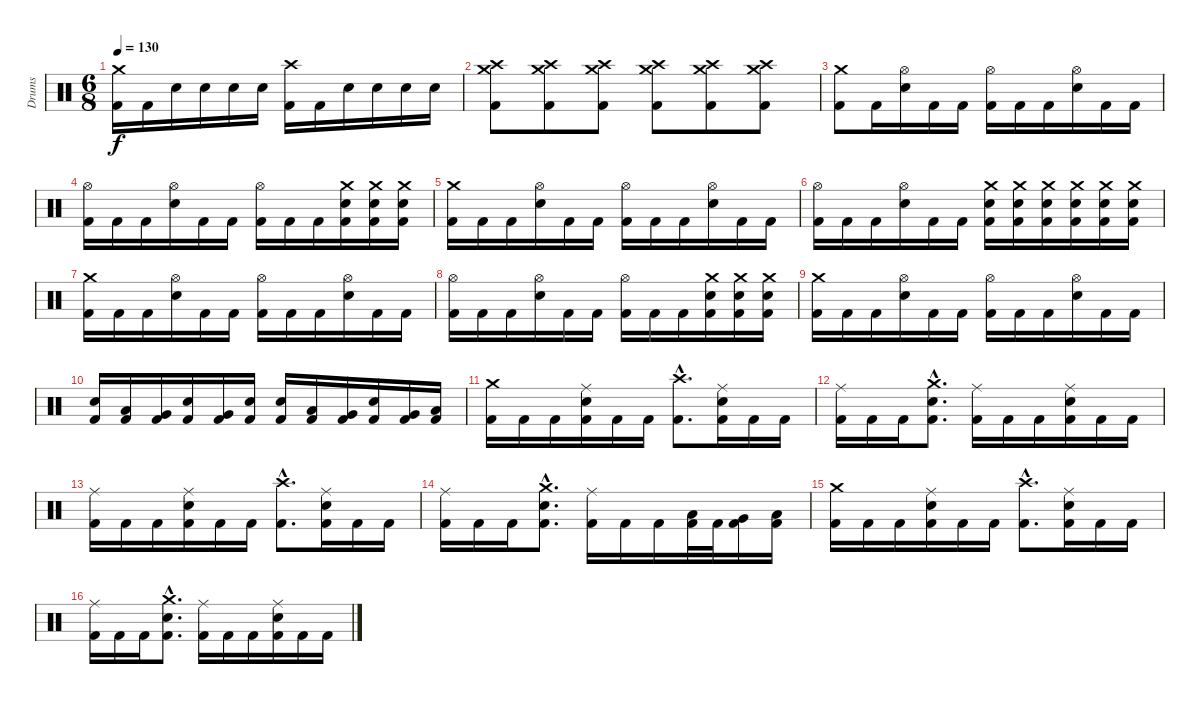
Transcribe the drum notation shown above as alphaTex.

\track ("Drums" "Drums") {instrument percussion}
\staff {score}
\articulation defaults
\ts (6 8)
\tempo 130
\clef neutral
\ks c
("Crash medium (hit)" "Kick (hit) 2").16{dy f} "Kick (hit) 2".16 "Electric Snare (hit)".16 "Electric Snare (hit)".16 "Electric Snare (hit)".16 "Electric Snare (hit)".16 ("Crash high (hit)" "Kick (hit) 2").16 "Kick (hit) 2".16 "Electric Snare (hit)".16 "Electric Snare (hit)".16 "Electric Snare (hit)".16 "Electric Snare (hit)".16 |
("Crash medium (hit)" "Crash high (hit)" "Kick (hit) 2").8 ("Crash medium (hit)" "Crash high (hit)" "Kick (hit) 2").8 ("Crash medium (hit)" "Crash high (hit)" "Kick (hit) 2").8 ("Crash medium (hit)" "Crash high (hit)" "Kick (hit) 2").8 ("Crash medium (hit)" "Crash high (hit)" "Kick (hit) 2").8 ("Crash medium (hit)" "Crash high (hit)" "Kick (hit) 2").8 |
\section ("" "")
("Crash medium (hit)" "Kick (hit) 2").8 "Kick (hit) 2".16 ("Hi-Hat (open)" "Electric Snare (hit)").16 "Kick (hit) 2".16 "Kick (hit) 2".16 ("Hi-Hat (open)" "Kick (hit) 2").16 "Kick (hit) 2".16 "Kick (hit) 2".16 ("Hi-Hat (open)" "Electric Snare (hit)").16 "Kick (hit) 2".16 "Kick (hit) 2".16 |
("Hi-Hat (open)" "Kick (hit) 2").16 "Kick (hit) 2".16 "Kick (hit) 2".16 ("Hi-Hat (open)" "Electric Snare (hit)").16 "Kick (hit) 2".16 "Kick (hit) 2".16 ("Hi-Hat (open)" "Kick (hit) 2").16 "Kick (hit) 2".16 "Kick (hit) 2".16 ("Crash medium (hit)" "Electric Snare (hit)" "Kick (hit) 2").16 ("Crash medium (hit)" "Electric Snare (hit)" "Kick (hit) 2").16 ("Crash medium (hit)" "Electric Snare (hit)" "Kick (hit) 2").16 |
("Crash medium (hit)" "Kick (hit) 2").16 "Kick (hit) 2".16 "Kick (hit) 2".16 ("Hi-Hat (open)" "Electric Snare (hit)").16 "Kick (hit) 2".16 "Kick (hit) 2".16 ("Hi-Hat (open)" "Kick (hit) 2").16 "Kick (hit) 2".16 "Kick (hit) 2".16 ("Hi-Hat (open)" "Electric Snare (hit)").16 "Kick (hit) 2".16 "Kick (hit) 2".16 |
("Hi-Hat (open)" "Kick (hit) 2").16 "Kick (hit) 2".16 "Kick (hit) 2".16 ("Hi-Hat (open)" "Electric Snare (hit)").16 "Kick (hit) 2".16 "Kick (hit) 2".16 ("Crash medium (hit)" "Electric Snare (hit)" "Kick (hit) 2").16 ("Crash medium (hit)" "Electric Snare (hit)" "Kick (hit) 2").16 ("Crash medium (hit)" "Electric Snare (hit)" "Kick (hit) 2").16 ("Crash medium (hit)" "Electric Snare (hit)" "Kick (hit) 2").16 ("Crash medium (hit)" "Electric Snare (hit)" "Kick (hit) 2").16 ("Crash medium (hit)" "Electric Snare (hit)" "Kick (hit) 2").16 |
("Crash medium (hit)" "Kick (hit) 2").16 "Kick (hit) 2".16 "Kick (hit) 2".16 ("Hi-Hat (open)" "Electric Snare (hit)").16 "Kick (hit) 2".16 "Kick (hit) 2".16 ("Hi-Hat (open)" "Kick (hit) 2").16 "Kick (hit) 2".16 "Kick (hit) 2".16 ("Hi-Hat (open)" "Electric Snare (hit)").16 "Kick (hit) 2".16 "Kick (hit) 2".16 |
("Hi-Hat (open)" "Kick (hit) 2").16 "Kick (hit) 2".16 "Kick (hit) 2".16 ("Hi-Hat (open)" "Electric Snare (hit)").16 "Kick (hit) 2".16 "Kick (hit) 2".16 ("Hi-Hat (open)" "Kick (hit) 2").16 "Kick (hit) 2".16 "Kick (hit) 2".16 ("Crash medium (hit)" "Electric Snare (hit)" "Kick (hit) 2").16 ("Crash medium (hit)" "Electric Snare (hit)" "Kick (hit) 2").16 ("Crash medium (hit)" "Electric Snare (hit)" "Kick (hit) 2").16 |
("Crash medium (hit)" "Kick (hit) 2").16 "Kick (hit) 2".16 "Kick (hit) 2".16 ("Hi-Hat (open)" "Electric Snare (hit)").16 "Kick (hit) 2".16 "Kick (hit) 2".16 ("Hi-Hat (open)" "Kick (hit) 2").16 "Kick (hit) 2".16 "Kick (hit) 2".16 ("Hi-Hat (open)" "Electric Snare (hit)").16 "Kick (hit) 2".16 "Kick (hit) 2".16 |
("Electric Snare (hit)" "Kick (hit) 2").16 ("Low Tom (hit)" "Kick (hit) 2").16 ("Very Low Tom (hit)" "Kick (hit) 2").16 ("Electric Snare (hit)" "Kick (hit) 2").16 ("Very Low Tom (hit)" "Kick (hit) 2").16 ("Electric Snare (hit)" "Kick (hit) 2").16 ("Electric Snare (hit)" "Kick (hit) 2").16 ("Low Tom (hit)" "Kick (hit) 2").16 ("Very Low Tom (hit)" "Kick (hit) 2").16 ("Electric Snare (hit)" "Kick (hit) 2").16 ("Very Low Tom (hit)" "Kick (hit) 2").16 ("Low Floor Tom (hit)" "Kick (hit) 2").16 |
\section ("" "")
("Crash medium (hit)" "Kick (hit) 2").16 "Kick (hit) 2".16 "Kick (hit) 2".16 ("Ride (middle)" "Electric Snare (hit)" "Kick (hit) 2").16 "Kick (hit) 2".16 "Kick (hit) 2".16 ("Crash high (hit)"{hac} "Kick (hit) 2"{hac}).8{d} ("Ride (middle)" "Electric Snare (hit)" "Kick (hit) 2").16 "Kick (hit) 2".16 "Kick (hit) 2".16 |
("Ride (middle)" "Kick (hit) 2").16 "Kick (hit) 2".16 "Kick (hit) 2".16 ("Crash medium (hit)"{hac} "Electric Snare (hit)"{hac} "Kick (hit) 2"{hac}).8{d} ("Ride (middle)" "Kick (hit) 2").16 "Kick (hit) 2".16 "Kick (hit) 2".16 ("Ride (middle)" "Electric Snare (hit)" "Kick (hit) 2").16 "Kick (hit) 2".16 "Kick (hit) 2".16 |
("Ride (middle)" "Kick (hit) 2").16 "Kick (hit) 2".16 "Kick (hit) 2".16 ("Ride (middle)" "Electric Snare (hit)" "Kick (hit) 2").16 "Kick (hit) 2".16 "Kick (hit) 2".16 ("Crash high (hit)"{hac} "Kick (hit) 2"{hac}).8{d} ("Ride (middle)" "Electric Snare (hit)" "Kick (hit) 2").16 "Kick (hit) 2".16 "Kick (hit) 2".16 |
("Ride (middle)" "Kick (hit) 2").16 "Kick (hit) 2".16 "Kick (hit) 2".16 ("Crash medium (hit)"{hac} "Electric Snare (hit)"{hac} "Kick (hit) 2"{hac}).8{d} ("Ride (middle)" "Kick (hit) 2").16 "Kick (hit) 2".16 "Kick (hit) 2".16 ("Low Tom (hit)" "Kick (hit) 2").32 "Kick (hit) 2".32 ("Very Low Tom (hit)" "Kick (hit) 2").16 ("Low Floor Tom (hit)" "Kick (hit) 2").16 |
("Crash medium (hit)" "Kick (hit) 2").16 "Kick (hit) 2".16 "Kick (hit) 2".16 ("Ride (middle)" "Electric Snare (hit)" "Kick (hit) 2").16 "Kick (hit) 2".16 "Kick (hit) 2".16 ("Crash high (hit)"{hac} "Kick (hit) 2"{hac}).8{d} ("Ride (middle)" "Electric Snare (hit)" "Kick (hit) 2").16 "Kick (hit) 2".16 "Kick (hit) 2".16 |
("Ride (middle)" "Kick (hit) 2").16 "Kick (hit) 2".16 "Kick (hit) 2".16 ("Crash medium (hit)"{hac} "Electric Snare (hit)"{hac} "Kick (hit) 2"{hac}).8{d} ("Ride (middle)" "Kick (hit) 2").16 "Kick (hit) 2".16 "Kick (hit) 2".16 ("Ride (middle)" "Electric Snare (hit)" "Kick (hit) 2").16 "Kick (hit) 2".16 "Kick (hit) 2".16
